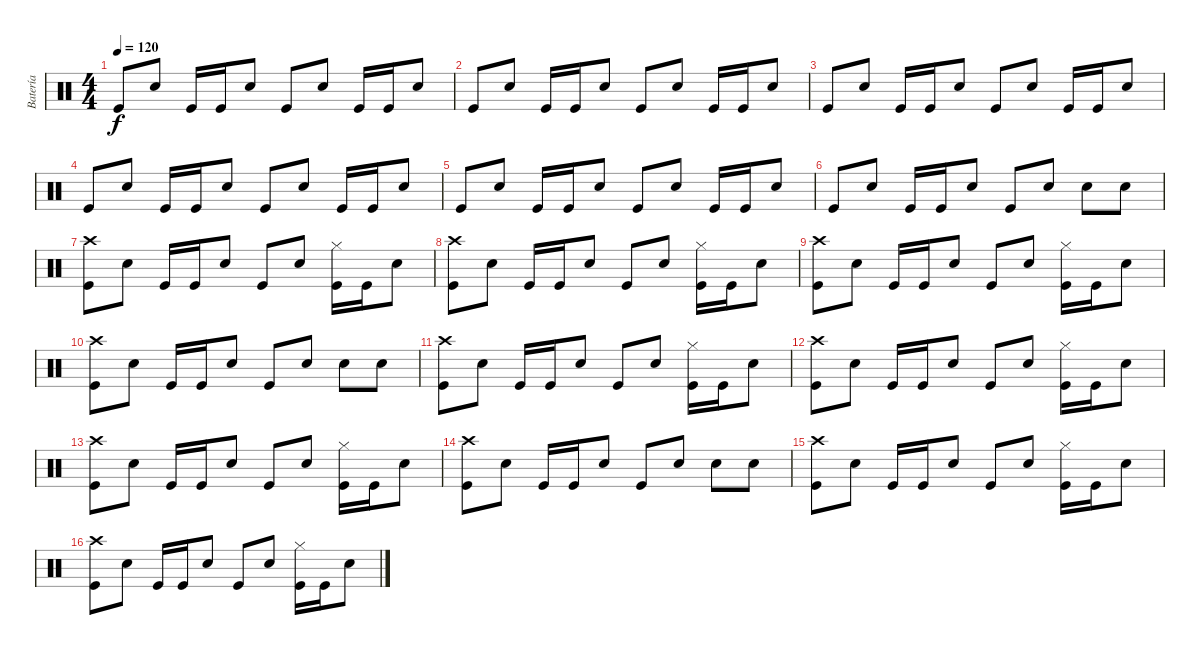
\track ("Batería" "Batería") {instrument percussion}
\staff {score}
\articulation defaults
\ts (4 4)
\tempo 120
\clef neutral
\ks c "Kick (hit)".8{dy f} "Electric Snare (hit)".8 "Kick (hit)".16 "Kick (hit)".16 "Electric Snare (hit)".8 "Kick (hit)".8 "Electric Snare (hit)".8 "Kick (hit)".16 "Kick (hit)".16 "Electric Snare (hit)".8
|
"Kick (hit)".8 "Electric Snare (hit)".8 "Kick (hit)".16 "Kick (hit)".16 "Electric Snare (hit)".8 "Kick (hit)".8 "Electric Snare (hit)".8 "Kick (hit)".16 "Kick (hit)".16 "Electric Snare (hit)".8 |
"Kick (hit)".8 "Electric Snare (hit)".8 "Kick (hit)".16 "Kick (hit)".16 "Electric Snare (hit)".8 "Kick (hit)".8 "Electric Snare (hit)".8 "Kick (hit)".16 "Kick (hit)".16 "Electric Snare (hit)".8 |
"Kick (hit)".8 "Electric Snare (hit)".8 "Kick (hit)".16 "Kick (hit)".16 "Electric Snare (hit)".8 "Kick (hit)".8 "Electric Snare (hit)".8 "Kick (hit)".16 "Kick (hit)".16 "Electric Snare (hit)".8 |
"Kick (hit)".8 "Electric Snare (hit)".8 "Kick (hit)".16 "Kick (hit)".16 "Electric Snare (hit)".8 "Kick (hit)".8 "Electric Snare (hit)".8 "Kick (hit)".16 "Kick (hit)".16 "Electric Snare (hit)".8 |
"Kick (hit)".8 "Electric Snare (hit)".8 "Kick (hit)".16 "Kick (hit)".16 "Electric Snare (hit)".8 "Kick (hit)".8 "Electric Snare (hit)".8 "Electric Snare (hit)".8 "Electric Snare (hit)".8 |
("Crash high (hit)" "Kick (hit)").8 "Electric Snare (hit)".8 "Kick (hit)".16 "Kick (hit)".16 "Electric Snare (hit)".8 "Kick (hit)".8 "Electric Snare (hit)".8 ("Hi-Hat (closed)" "Kick (hit)").16 "Kick (hit)".16 "Electric Snare (hit)".8 |
("Crash high (hit)" "Kick (hit)").8 "Electric Snare (hit)".8 "Kick (hit)".16 "Kick (hit)".16 "Electric Snare (hit)".8 "Kick (hit)".8 "Electric Snare (hit)".8 ("Hi-Hat (closed)" "Kick (hit)").16 "Kick (hit)".16 "Electric Snare (hit)".8 |
("Crash high (hit)" "Kick (hit)").8 "Electric Snare (hit)".8 "Kick (hit)".16 "Kick (hit)".16 "Electric Snare (hit)".8 "Kick (hit)".8 "Electric Snare (hit)".8 ("Hi-Hat (closed)" "Kick (hit)").16 "Kick (hit)".16 "Electric Snare (hit)".8 |
("Crash high (hit)" "Kick (hit)").8 "Electric Snare (hit)".8 "Kick (hit)".16 "Kick (hit)".16 "Electric Snare (hit)".8 "Kick (hit)".8 "Electric Snare (hit)".8 "Electric Snare (hit)".8 "Electric Snare (hit)".8 |
("Crash high (hit)" "Kick (hit)").8 "Electric Snare (hit)".8 "Kick (hit)".16 "Kick (hit)".16 "Electric Snare (hit)".8 "Kick (hit)".8 "Electric Snare (hit)".8 ("Hi-Hat (closed)" "Kick (hit)").16 "Kick (hit)".16 "Electric Snare (hit)".8 |
("Crash high (hit)" "Kick (hit)").8 "Electric Snare (hit)".8 "Kick (hit)".16 "Kick (hit)".16 "Electric Snare (hit)".8 "Kick (hit)".8 "Electric Snare (hit)".8 ("Hi-Hat (closed)" "Kick (hit)").16 "Kick (hit)".16 "Electric Snare (hit)".8 |
("Crash high (hit)" "Kick (hit)").8 "Electric Snare (hit)".8 "Kick (hit)".16 "Kick (hit)".16 "Electric Snare (hit)".8 "Kick (hit)".8 "Electric Snare (hit)".8 ("Hi-Hat (closed)" "Kick (hit)").16 "Kick (hit)".16 "Electric Snare (hit)".8 |
("Crash high (hit)" "Kick (hit)").8 "Electric Snare (hit)".8 "Kick (hit)".16 "Kick (hit)".16 "Electric Snare (hit)".8 "Kick (hit)".8 "Electric Snare (hit)".8 "Electric Snare (hit)".8 "Electric Snare (hit)".8 |
("Crash high (hit)" "Kick (hit)").8 "Electric Snare (hit)".8 "Kick (hit)".16 "Kick (hit)".16 "Electric Snare (hit)".8 "Kick (hit)".8 "Electric Snare (hit)".8 ("Hi-Hat (closed)" "Kick (hit)").16 "Kick (hit)".16 "Electric Snare (hit)".8 |
("Crash high (hit)" "Kick (hit)").8 "Electric Snare (hit)".8 "Kick (hit)".16 "Kick (hit)".16 "Electric Snare (hit)".8 "Kick (hit)".8 "Electric Snare (hit)".8 ("Hi-Hat (closed)" "Kick (hit)").16 "Kick (hit)".16 "Electric Snare (hit)".8
